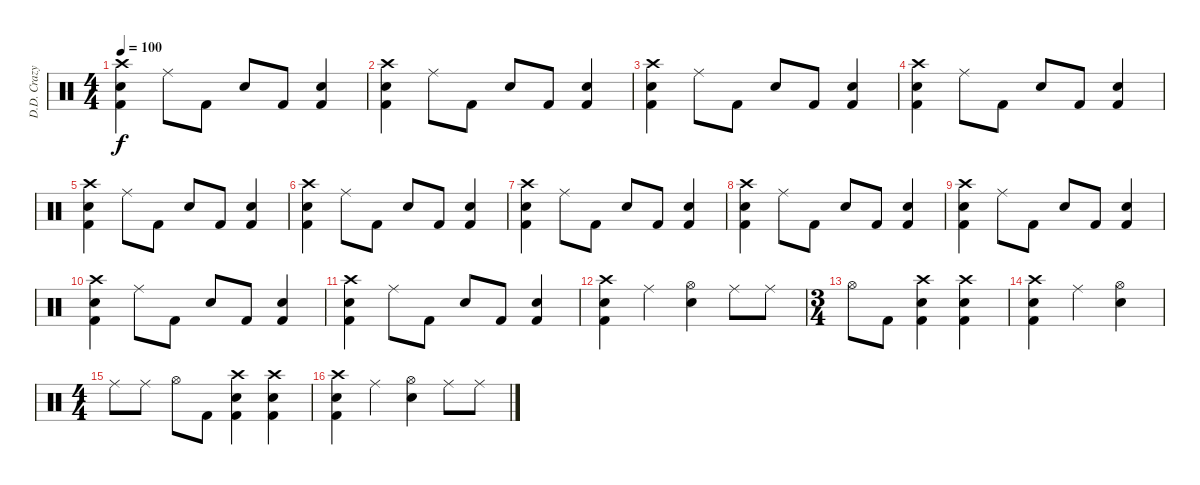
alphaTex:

\track ("D.D. Crazy " "D.D. Crazy") {instrument percussion}
\staff {score}
\articulation defaults
\ts (4 4)
\tempo 100
\clef neutral
\ks c
("Crash high (hit)" "Snare (hit) 2" "Kick (hit) 2").4{dy f} "Ride (middle)".8 "Kick (hit) 2".8 "Snare (hit) 2".8 "Kick (hit) 2".8 ("Snare (hit) 2" "Kick (hit) 2").4 |
("Crash high (hit)" "Snare (hit) 2" "Kick (hit) 2").4 "Ride (middle)".8 "Kick (hit) 2".8 "Snare (hit) 2".8 "Kick (hit) 2".8 ("Snare (hit) 2" "Kick (hit) 2").4 |
("Crash high (hit)" "Snare (hit) 2" "Kick (hit) 2").4 "Ride (middle)".8 "Kick (hit) 2".8 "Snare (hit) 2".8 "Kick (hit) 2".8 ("Snare (hit) 2" "Kick (hit) 2").4 |
("Crash high (hit)" "Snare (hit) 2" "Kick (hit) 2").4 "Ride (middle)".8 "Kick (hit) 2".8 "Snare (hit) 2".8 "Kick (hit) 2".8 ("Snare (hit) 2" "Kick (hit) 2").4 |
("Crash high (hit)" "Snare (hit) 2" "Kick (hit) 2").4 "Ride (middle)".8 "Kick (hit) 2".8 "Snare (hit) 2".8 "Kick (hit) 2".8 ("Snare (hit) 2" "Kick (hit) 2").4 |
("Crash high (hit)" "Snare (hit) 2" "Kick (hit) 2").4 "Ride (middle)".8 "Kick (hit) 2".8 "Snare (hit) 2".8 "Kick (hit) 2".8 ("Snare (hit) 2" "Kick (hit) 2").4 |
("Crash high (hit)" "Snare (hit) 2" "Kick (hit) 2").4 "Ride (middle)".8 "Kick (hit) 2".8 "Snare (hit) 2".8 "Kick (hit) 2".8 ("Snare (hit) 2" "Kick (hit) 2").4 |
("Crash high (hit)" "Snare (hit) 2" "Kick (hit) 2").4 "Ride (middle)".8 "Kick (hit) 2".8 "Snare (hit) 2".8 "Kick (hit) 2".8 ("Snare (hit) 2" "Kick (hit) 2").4 |
("Crash high (hit)" "Snare (hit) 2" "Kick (hit) 2").4 "Ride (middle)".8 "Kick (hit) 2".8 "Snare (hit) 2".8 "Kick (hit) 2".8 ("Snare (hit) 2" "Kick (hit) 2").4 |
("Crash high (hit)" "Snare (hit) 2" "Kick (hit) 2").4 "Ride (middle)".8 "Kick (hit) 2".8 "Snare (hit) 2".8 "Kick (hit) 2".8 ("Snare (hit) 2" "Kick (hit) 2").4 |
("Crash high (hit)" "Snare (hit) 2" "Kick (hit) 2").4 "Ride (middle)".8 "Kick (hit) 2".8 "Snare (hit) 2".8 "Kick (hit) 2".8 ("Snare (hit) 2" "Kick (hit) 2").4 |
("Crash high (hit)" "Snare (hit) 2" "Kick (hit) 2").4 "Ride (middle)".4 ("Hi-Hat (open)" "Snare (hit) 2").4 "Ride (middle)".8 "Ride (middle)".8 |
\ts (3 4)
"Hi-Hat (open)".8 "Kick (hit) 2".8 ("Crash high (hit)" "Snare (hit) 2" "Kick (hit) 2").4 ("Crash high (hit)" "Snare (hit) 2" "Kick (hit) 2").4 |
("Crash high (hit)" "Snare (hit) 2" "Kick (hit) 2").4 "Ride (middle)".4 ("Hi-Hat (open)" "Snare (hit) 2").4 |
\ts (4 4)
"Ride (middle)".8 "Ride (middle)".8 "Hi-Hat (open)".8 "Kick (hit) 2".8 ("Crash high (hit)" "Snare (hit) 2" "Kick (hit) 2").4 ("Crash high (hit)" "Snare (hit) 2" "Kick (hit) 2").4 |
("Crash high (hit)" "Snare (hit) 2" "Kick (hit) 2").4 "Ride (middle)".4 ("Hi-Hat (open)" "Snare (hit) 2").4 "Ride (middle)".8 "Ride (middle)".8
